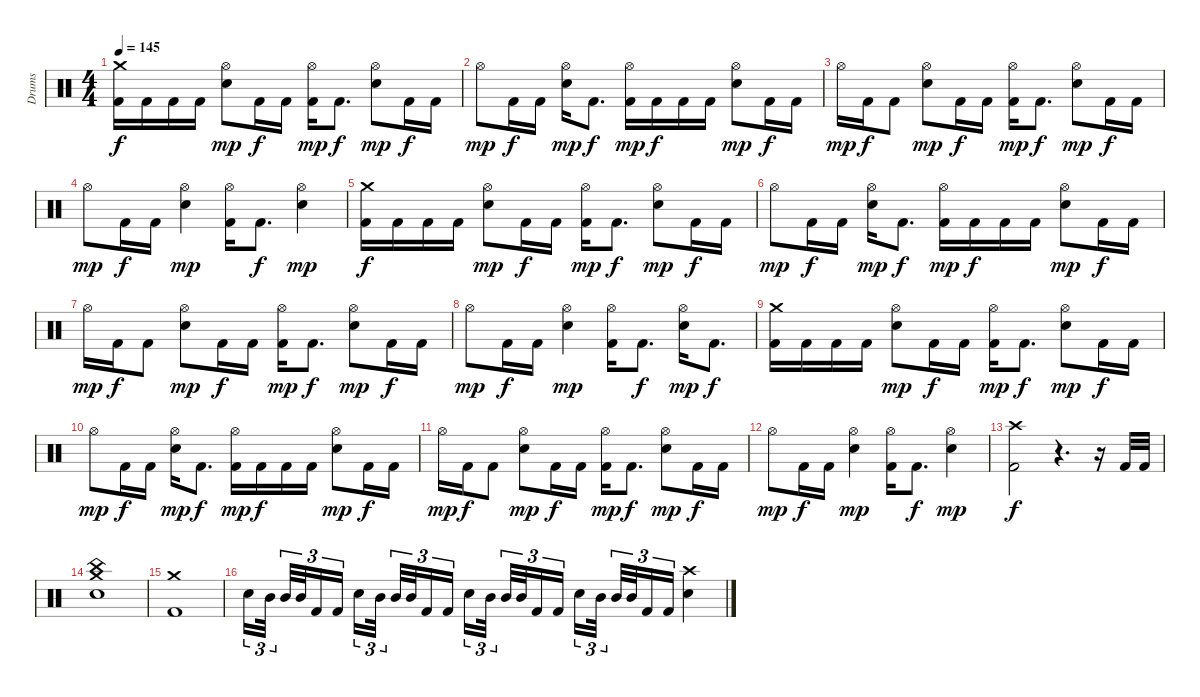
\track ("Drums" "Drums") {instrument percussion}
\staff {score}
\articulation defaults
\ts (4 4)
\tempo 145
\clef neutral
\ks c
("Crash medium (hit)" "Kick (hit) 2").16{dy f} "Kick (hit) 2".16 "Kick (hit) 2".16 "Kick (hit) 2".16 ("Hi-Hat (open)" "Electric Snare (hit)").8{dy mp} "Kick (hit) 2".16{dy f} "Kick (hit) 2".16 ("Hi-Hat (open)" "Kick (hit) 2").16{dy mp} "Kick (hit) 2".8{d dy f} ("Hi-Hat (open)" "Electric Snare (hit)").8{dy mp} "Kick (hit) 2".16{dy f} "Kick (hit) 2".16 |
"Hi-Hat (open)".8{dy mp} "Kick (hit) 2".16{dy f} "Kick (hit) 2".16 ("Hi-Hat (open)" "Electric Snare (hit)").16{dy mp} "Kick (hit) 2".8{d dy f} ("Hi-Hat (open)" "Kick (hit) 2").16{dy mp} "Kick (hit) 2".16{dy f} "Kick (hit) 2".16 "Kick (hit) 2".16 ("Hi-Hat (open)" "Electric Snare (hit)").8{dy mp} "Kick (hit) 2".16{dy f} "Kick (hit) 2".16 |
"Hi-Hat (open)".16{dy mp} "Kick (hit) 2".16{dy f} "Kick (hit) 2".8 ("Hi-Hat (open)" "Electric Snare (hit)").8{dy mp} "Kick (hit) 2".16{dy f} "Kick (hit) 2".16 ("Hi-Hat (open)" "Kick (hit) 2").16{dy mp} "Kick (hit) 2".8{d dy f} ("Hi-Hat (open)" "Electric Snare (hit)").8{dy mp} "Kick (hit) 2".16{dy f} "Kick (hit) 2".16 |
"Hi-Hat (open)".8{dy mp} "Kick (hit) 2".16{dy f} "Kick (hit) 2".16 ("Hi-Hat (open)" "Electric Snare (hit)").4{dy mp} ("Hi-Hat (open)" "Kick (hit) 2").16 "Kick (hit) 2".8{d dy f} ("Hi-Hat (open)" "Electric Snare (hit)").4{dy mp} |
("Crash medium (hit)" "Kick (hit) 2").16{dy f} "Kick (hit) 2".16 "Kick (hit) 2".16 "Kick (hit) 2".16 ("Hi-Hat (open)" "Electric Snare (hit)").8{dy mp} "Kick (hit) 2".16{dy f} "Kick (hit) 2".16 ("Hi-Hat (open)" "Kick (hit) 2").16{dy mp} "Kick (hit) 2".8{d dy f} ("Hi-Hat (open)" "Electric Snare (hit)").8{dy mp} "Kick (hit) 2".16{dy f} "Kick (hit) 2".16 |
"Hi-Hat (open)".8{dy mp} "Kick (hit) 2".16{dy f} "Kick (hit) 2".16 ("Hi-Hat (open)" "Electric Snare (hit)").16{dy mp} "Kick (hit) 2".8{d dy f} ("Hi-Hat (open)" "Kick (hit) 2").16{dy mp} "Kick (hit) 2".16{dy f} "Kick (hit) 2".16 "Kick (hit) 2".16 ("Hi-Hat (open)" "Electric Snare (hit)").8{dy mp} "Kick (hit) 2".16{dy f} "Kick (hit) 2".16 |
"Hi-Hat (open)".16{dy mp} "Kick (hit) 2".16{dy f} "Kick (hit) 2".8 ("Hi-Hat (open)" "Electric Snare (hit)").8{dy mp} "Kick (hit) 2".16{dy f} "Kick (hit) 2".16 ("Hi-Hat (open)" "Kick (hit) 2").16{dy mp} "Kick (hit) 2".8{d dy f} ("Hi-Hat (open)" "Electric Snare (hit)").8{dy mp} "Kick (hit) 2".16{dy f} "Kick (hit) 2".16 |
"Hi-Hat (open)".8{dy mp} "Kick (hit) 2".16{dy f} "Kick (hit) 2".16 ("Hi-Hat (open)" "Electric Snare (hit)").4{dy mp} ("Hi-Hat (open)" "Kick (hit) 2").16 "Kick (hit) 2".8{d dy f} ("Hi-Hat (open)" "Electric Snare (hit)").16{dy mp} "Kick (hit) 2".8{d dy f} |
("Crash medium (hit)" "Kick (hit) 2").16 "Kick (hit) 2".16 "Kick (hit) 2".16 "Kick (hit) 2".16 ("Hi-Hat (open)" "Electric Snare (hit)").8{dy mp} "Kick (hit) 2".16{dy f} "Kick (hit) 2".16 ("Hi-Hat (open)" "Kick (hit) 2").16{dy mp} "Kick (hit) 2".8{d dy f} ("Hi-Hat (open)" "Electric Snare (hit)").8{dy mp} "Kick (hit) 2".16{dy f} "Kick (hit) 2".16 |
"Hi-Hat (open)".8{dy mp} "Kick (hit) 2".16{dy f} "Kick (hit) 2".16 ("Hi-Hat (open)" "Electric Snare (hit)").16{dy mp} "Kick (hit) 2".8{d dy f} ("Hi-Hat (open)" "Kick (hit) 2").16{dy mp} "Kick (hit) 2".16{dy f} "Kick (hit) 2".16 "Kick (hit) 2".16 ("Hi-Hat (open)" "Electric Snare (hit)").8{dy mp} "Kick (hit) 2".16{dy f} "Kick (hit) 2".16 |
"Hi-Hat (open)".16{dy mp} "Kick (hit) 2".16{dy f} "Kick (hit) 2".8 ("Hi-Hat (open)" "Electric Snare (hit)").8{dy mp} "Kick (hit) 2".16{dy f} "Kick (hit) 2".16 ("Hi-Hat (open)" "Kick (hit) 2").16{dy mp} "Kick (hit) 2".8{d dy f} ("Hi-Hat (open)" "Electric Snare (hit)").8{dy mp} "Kick (hit) 2".16{dy f} "Kick (hit) 2".16 |
"Hi-Hat (open)".8{dy mp} "Kick (hit) 2".16{dy f} "Kick (hit) 2".16 ("Hi-Hat (open)" "Electric Snare (hit)").4{dy mp} ("Hi-Hat (open)" "Kick (hit) 2").16 "Kick (hit) 2".8{d dy f} ("Hi-Hat (open)" "Electric Snare (hit)").4{dy mp} |
("Crash high (hit)" "Kick (hit) 2").2{dy f} r.4{d} r.16 "Kick (hit) 2".32 "Kick (hit) 2".32 |
("Crash medium (hit)" "China (hit)" "Electric Snare (hit)").1 |
("Crash medium (hit)" "Kick (hit) 2").1 |
"Electric Snare (hit)".16{tu (3 2)} "Mid Tom (hit)".32{tu (3 2) beam splitsecondary} "Mid Tom (hit)".32{tu (3 2)} "Mid Tom (hit)".32{tu (3 2)} "Kick (hit) 2".16{tu (3 2)} "Kick (hit) 2".16{tu (3 2) beam splitsecondary} "Electric Snare (hit)".16{tu (3 2)} "Mid Tom (hit)".32{tu (3 2)} "Mid Tom (hit)".32{tu (3 2)} "Mid Tom (hit)".32{tu (3 2)} "Kick (hit) 2".16{tu (3 2)} "Kick (hit) 2".16{tu (3 2) beam splitsecondary} "Electric Snare (hit)".16{tu (3 2)} "Mid Tom (hit)".32{tu (3 2) beam splitsecondary} "Mid Tom (hit)".32{tu (3 2)} "Mid Tom (hit)".32{tu (3 2)} "Kick (hit) 2".16{tu (3 2)} "Kick (hit) 2".16{tu (3 2) beam splitsecondary} "Electric Snare (hit)".16{tu (3 2)} "Mid Tom (hit)".32{tu (3 2) beam splitsecondary} "Mid Tom (hit)".32{tu (3 2)} "Mid Tom (hit)".32{tu (3 2)} "Kick (hit) 2".16{tu (3 2)} "Kick (hit) 2".16{tu (3 2)} ("Crash high (hit)" "Electric Snare (hit)").4
